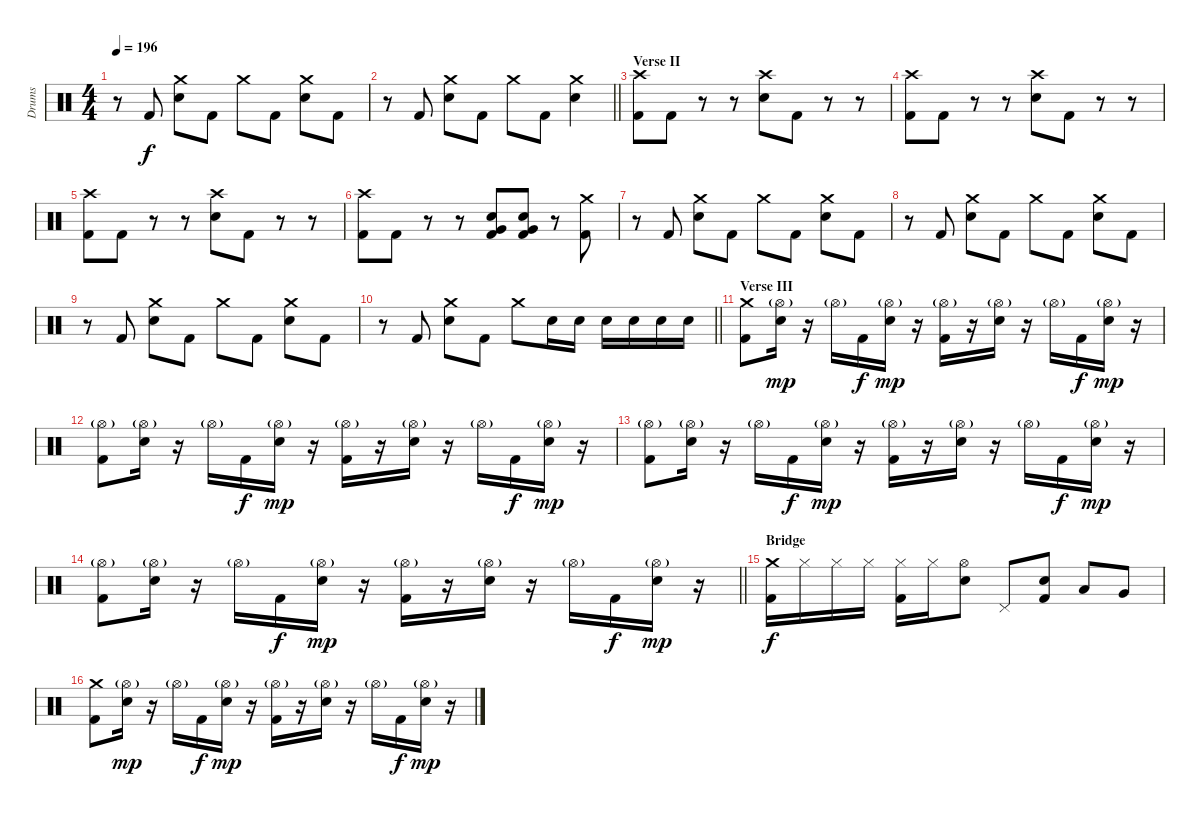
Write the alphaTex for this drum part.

\track ("Drums" "Drums") {instrument percussion}
\staff {score}
\articulation defaults
\ts (4 4)
\tempo 196
\clef neutral
\ks c
r.8{dy f} "Kick (hit) 2".8 ("Crash medium (hit)" "Electric Snare (hit)").8 "Kick (hit) 2".8 "Crash medium (hit)".8 "Kick (hit) 2".8 ("Crash medium (hit)" "Electric Snare (hit)").8 "Kick (hit) 2".8 |
\barLineRight lightlight
r.8 "Kick (hit) 2".8 ("Crash medium (hit)" "Electric Snare (hit)").8 "Kick (hit) 2".8 "Crash medium (hit)".8 "Kick (hit) 2".8 ("Crash medium (hit)" "Electric Snare (hit)").4 |
\section ("" "Verse II")
("Crash high (hit)" "Kick (hit) 2").8 "Kick (hit) 2".8 r.8 r.8 ("Crash high (hit)" "Electric Snare (hit)").8 "Kick (hit) 2".8 r.8 r.8 |
("Crash high (hit)" "Kick (hit) 2").8 "Kick (hit) 2".8 r.8 r.8 ("Crash high (hit)" "Electric Snare (hit)").8 "Kick (hit) 2".8 r.8 r.8 |
("Crash high (hit)" "Kick (hit) 2").8 "Kick (hit) 2".8 r.8 r.8 ("Crash high (hit)" "Electric Snare (hit)").8 "Kick (hit) 2".8 r.8 r.8 |
("Crash high (hit)" "Kick (hit) 2").8 "Kick (hit) 2".8 r.8 r.8 ("Very Low Tom (hit)" "Electric Snare (hit)" "Kick (hit) 2").8 ("Very Low Tom (hit)" "Electric Snare (hit)" "Kick (hit) 2").8 r.8 ("Crash medium (hit)" "Kick (hit) 2").8 |
r.8 "Kick (hit) 2".8 ("Crash medium (hit)" "Electric Snare (hit)").8 "Kick (hit) 2".8 "Crash medium (hit)".8 "Kick (hit) 2".8 ("Crash medium (hit)" "Electric Snare (hit)").8 "Kick (hit) 2".8 |
r.8 "Kick (hit) 2".8 ("Crash medium (hit)" "Electric Snare (hit)").8 "Kick (hit) 2".8 "Crash medium (hit)".8 "Kick (hit) 2".8 ("Crash medium (hit)" "Electric Snare (hit)").8 "Kick (hit) 2".8 |
r.8 "Kick (hit) 2".8 ("Crash medium (hit)" "Electric Snare (hit)").8 "Kick (hit) 2".8 "Crash medium (hit)".8 "Kick (hit) 2".8 ("Crash medium (hit)" "Electric Snare (hit)").8 "Kick (hit) 2".8 |
\barLineRight lightlight
r.8 "Kick (hit) 2".8 ("Crash medium (hit)" "Electric Snare (hit)").8 "Kick (hit) 2".8 "Crash medium (hit)".8 "Electric Snare (hit)".16 "Electric Snare (hit)".16 "Electric Snare (hit)".16 "Electric Snare (hit)".16 "Electric Snare (hit)".16 "Electric Snare (hit)".16 |
\section ("" "Verse III")
("Crash medium (hit)" "Kick (hit) 2").8 ("Hi-Hat (open)"{g} "Electric Snare (hit)").16{dy mp} r.16 "Hi-Hat (open)"{g}.16 "Kick (hit) 2".16{dy f} ("Hi-Hat (open)"{g} "Electric Snare (hit)").16{dy mp} r.16 ("Hi-Hat (open)"{g} "Kick (hit) 2").16 r.16 ("Hi-Hat (open)"{g} "Electric Snare (hit)").16 r.16 "Hi-Hat (open)"{g}.16 "Kick (hit) 2".16{dy f} ("Hi-Hat (open)"{g} "Electric Snare (hit)").16{dy mp} r.16 |
("Hi-Hat (open)"{g} "Kick (hit) 2").8 ("Hi-Hat (open)"{g} "Electric Snare (hit)").16 r.16 "Hi-Hat (open)"{g}.16 "Kick (hit) 2".16{dy f} ("Hi-Hat (open)"{g} "Electric Snare (hit)").16{dy mp} r.16 ("Hi-Hat (open)"{g} "Kick (hit) 2").16 r.16 ("Hi-Hat (open)"{g} "Electric Snare (hit)").16 r.16 "Hi-Hat (open)"{g}.16 "Kick (hit) 2".16{dy f} ("Hi-Hat (open)"{g} "Electric Snare (hit)").16{dy mp} r.16 |
("Hi-Hat (open)"{g} "Kick (hit) 2").8 ("Hi-Hat (open)"{g} "Electric Snare (hit)").16 r.16 "Hi-Hat (open)"{g}.16 "Kick (hit) 2".16{dy f} ("Hi-Hat (open)"{g} "Electric Snare (hit)").16{dy mp} r.16 ("Hi-Hat (open)"{g} "Kick (hit) 2").16 r.16 ("Hi-Hat (open)"{g} "Electric Snare (hit)").16 r.16 "Hi-Hat (open)"{g}.16 "Kick (hit) 2".16{dy f} ("Hi-Hat (open)"{g} "Electric Snare (hit)").16{dy mp} r.16 |
\barLineRight lightlight
("Hi-Hat (open)"{g} "Kick (hit) 2").8 ("Hi-Hat (open)"{g} "Electric Snare (hit)").16 r.16 "Hi-Hat (open)"{g}.16 "Kick (hit) 2".16{dy f} ("Hi-Hat (open)"{g} "Electric Snare (hit)").16{dy mp} r.16 ("Hi-Hat (open)"{g} "Kick (hit) 2").16 r.16 ("Hi-Hat (open)"{g} "Electric Snare (hit)").16 r.16 "Hi-Hat (open)"{g}.16 "Kick (hit) 2".16{dy f} ("Hi-Hat (open)"{g} "Electric Snare (hit)").16{dy mp} r.16 |
\section ("" "Bridge")
("Crash medium (hit)" "Kick (hit) 2").16{dy f} "Hi-Hat (closed)".16 "Hi-Hat (closed)".16 "Hi-Hat (closed)".16 ("Hi-Hat (closed)" "Kick (hit) 2").16 "Hi-Hat (closed)".16 ("Hi-Hat (open)" "Electric Snare (hit)").8 "Pedal Hi-Hat (hit)".8 ("Electric Snare (hit)" "Kick (hit) 2").8 "Low Tom (hit)".8 "Very Low Tom (hit)".8 |
("Crash medium (hit)" "Kick (hit) 2").8 ("Hi-Hat (open)"{g} "Electric Snare (hit)").16{dy mp} r.16 "Hi-Hat (open)"{g}.16 "Kick (hit) 2".16{dy f} ("Hi-Hat (open)"{g} "Electric Snare (hit)").16{dy mp} r.16 ("Hi-Hat (open)"{g} "Kick (hit) 2").16 r.16 ("Hi-Hat (open)"{g} "Electric Snare (hit)").16 r.16 "Hi-Hat (open)"{g}.16 "Kick (hit) 2".16{dy f} ("Hi-Hat (open)"{g} "Electric Snare (hit)").16{dy mp} r.16
